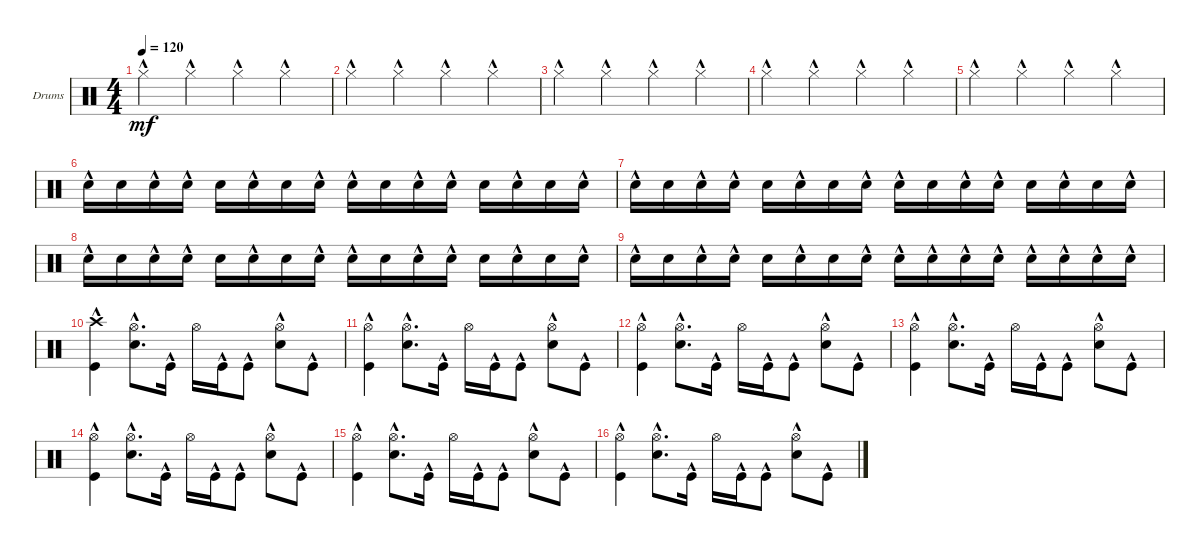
\defaultSystemsLayout 4
\bracketExtendMode groupsimilarinstruments
\firstSystemTrackNameOrientation horizontal
\otherSystemsTrackNameOrientation horizontal
\track ("Drumkit" "Drums") {instrument percussion}
\staff {score}
\articulation defaults
\ts (4 4)
\tempo 120
\clef neutral
\ks c "Hi-Hat (closed)"{hac}.4{dy mf} "Hi-Hat (closed)"{hac}.4 "Hi-Hat (closed)"{hac}.4 "Hi-Hat (closed)"{hac}.4
|
\scale
0.472222 "Hi-Hat (closed)"{hac}.4 "Hi-Hat (closed)"{hac}.4 "Hi-Hat (closed)"{hac}.4 "Hi-Hat (closed)"{hac}.4 |
\scale
0.263889 "Hi-Hat (closed)"{hac}.4 "Hi-Hat (closed)"{hac}.4 "Hi-Hat (closed)"{hac}.4 "Hi-Hat (closed)"{hac}.4 |
\scale
0.263889 "Hi-Hat (closed)"{hac}.4 "Hi-Hat (closed)"{hac}.4 "Hi-Hat (closed)"{hac}.4 "Hi-Hat (closed)"{hac}.4 |
\scale
0.333333 "Hi-Hat (closed)"{hac}.4 "Hi-Hat (closed)"{hac}.4 "Hi-Hat (closed)"{hac}.4 "Hi-Hat (closed)"{hac}.4 |
\scale
0.333333 "Snare (hit) 2"{hac}.16 "Snare (hit) 2".16 "Snare (hit) 2"{hac}.16 "Snare (hit) 2"{hac}.16 "Snare (hit) 2".16 "Snare (hit) 2"{hac}.16 "Snare (hit) 2".16 "Snare (hit) 2"{hac}.16 "Snare (hit) 2"{hac}.16 "Snare (hit) 2".16 "Snare (hit) 2"{hac}.16 "Snare (hit) 2"{hac}.16 "Snare (hit) 2".16 "Snare (hit) 2"{hac}.16 "Snare (hit) 2".16 "Snare (hit) 2"{hac}.16 |
\scale
0.333333 "Snare (hit) 2"{hac}.16 "Snare (hit) 2".16 "Snare (hit) 2"{hac}.16 "Snare (hit) 2"{hac}.16 "Snare (hit) 2".16 "Snare (hit) 2"{hac}.16 "Snare (hit) 2".16 "Snare (hit) 2"{hac}.16 "Snare (hit) 2"{hac}.16 "Snare (hit) 2".16 "Snare (hit) 2"{hac}.16 "Snare (hit) 2"{hac}.16 "Snare (hit) 2".16 "Snare (hit) 2"{hac}.16 "Snare (hit) 2".16 "Snare (hit) 2"{hac}.16 |
"Snare (hit) 2"{hac}.16 "Snare (hit) 2".16 "Snare (hit) 2"{hac}.16 "Snare (hit) 2"{hac}.16 "Snare (hit) 2".16 "Snare (hit) 2"{hac}.16 "Snare (hit) 2".16 "Snare (hit) 2"{hac}.16 "Snare (hit) 2"{hac}.16 "Snare (hit) 2".16 "Snare (hit) 2"{hac}.16 "Snare (hit) 2"{hac}.16 "Snare (hit) 2".16 "Snare (hit) 2"{hac}.16 "Snare (hit) 2".16 "Snare (hit) 2"{hac}.16 |
"Snare (hit) 2"{hac}.16 "Snare (hit) 2".16 "Snare (hit) 2"{hac}.16 "Snare (hit) 2"{hac}.16 "Snare (hit) 2".16 "Snare (hit) 2"{hac}.16 "Snare (hit) 2".16 "Snare (hit) 2"{hac}.16 "Snare (hit) 2"{hac}.16 "Snare (hit) 2"{hac}.16 "Snare (hit) 2"{hac}.16 "Snare (hit) 2"{hac}.16 "Snare (hit) 2"{hac}.16 "Snare (hit) 2"{hac}.16 "Snare (hit) 2"{hac}.16 "Snare (hit) 2"{hac}.16 |
("Kick (hit)"{hac} "Crash high (hit)"{hac}).4 ("Snare (hit) 2"{hac} "Hi-Hat (open)").8{d} "Kick (hit)"{hac}.16 "Hi-Hat (open)".16 "Kick (hit)"{hac}.16 "Kick (hit)"{hac}.8 ("Snare (hit) 2"{hac} "Hi-Hat (open)").8 "Kick (hit)"{hac}.8 |
("Kick (hit)"{hac} "Hi-Hat (open)").4 ("Snare (hit) 2"{hac} "Hi-Hat (open)").8{d} "Kick (hit)"{hac}.16 "Hi-Hat (open)".16 "Kick (hit)"{hac}.16 "Kick (hit)"{hac}.8 ("Snare (hit) 2"{hac} "Hi-Hat (open)").8 "Kick (hit)"{hac}.8 |
("Kick (hit)"{hac} "Hi-Hat (open)").4 ("Snare (hit) 2"{hac} "Hi-Hat (open)").8{d} "Kick (hit)"{hac}.16 "Hi-Hat (open)".16 "Kick (hit)"{hac}.16 "Kick (hit)"{hac}.8 ("Snare (hit) 2"{hac} "Hi-Hat (open)").8 "Kick (hit)"{hac}.8 |
("Kick (hit)"{hac} "Hi-Hat (open)").4 ("Snare (hit) 2"{hac} "Hi-Hat (open)").8{d} "Kick (hit)"{hac}.16 "Hi-Hat (open)".16 "Kick (hit)"{hac}.16 "Kick (hit)"{hac}.8 ("Snare (hit) 2"{hac} "Hi-Hat (open)").8 "Kick (hit)"{hac}.8 |
("Kick (hit)"{hac} "Hi-Hat (open)").4 ("Snare (hit) 2"{hac} "Hi-Hat (open)").8{d} "Kick (hit)"{hac}.16 "Hi-Hat (open)".16 "Kick (hit)"{hac}.16 "Kick (hit)"{hac}.8 ("Snare (hit) 2"{hac} "Hi-Hat (open)").8 "Kick (hit)"{hac}.8 |
("Kick (hit)"{hac} "Hi-Hat (open)").4 ("Snare (hit) 2"{hac} "Hi-Hat (open)").8{d} "Kick (hit)"{hac}.16 "Hi-Hat (open)".16 "Kick (hit)"{hac}.16 "Kick (hit)"{hac}.8 ("Snare (hit) 2"{hac} "Hi-Hat (open)").8 "Kick (hit)"{hac}.8 |
("Kick (hit)"{hac} "Hi-Hat (open)").4 ("Snare (hit) 2"{hac} "Hi-Hat (open)").8{d} "Kick (hit)"{hac}.16 "Hi-Hat (open)".16 "Kick (hit)"{hac}.16 "Kick (hit)"{hac}.8 ("Snare (hit) 2"{hac} "Hi-Hat (open)").8 "Kick (hit)"{hac}.8
